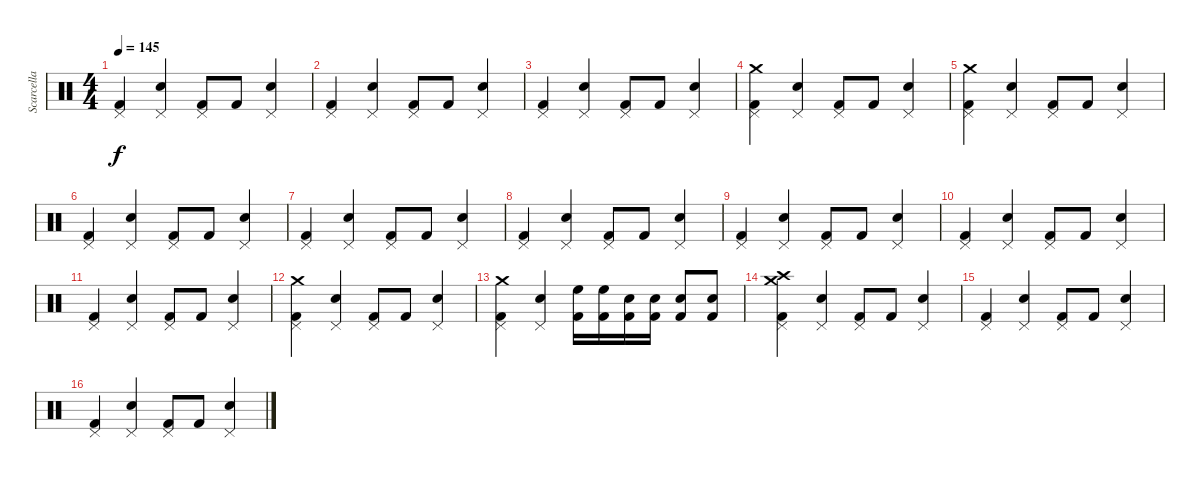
\track ("Scarcella" "Scarcella") {instrument percussion}
\staff {score}
\articulation defaults
\ts (4 4)
\tempo 145
\clef neutral
\ks c
("Pedal Hi-Hat (hit)" "Kick (hit) 2").4{dy f} ("Pedal Hi-Hat (hit)" "Snare (hit) 2").4 ("Pedal Hi-Hat (hit)" "Kick (hit) 2").8 "Kick (hit) 2".8 ("Pedal Hi-Hat (hit)" "Snare (hit) 2").4 |
("Pedal Hi-Hat (hit)" "Kick (hit) 2").4 ("Pedal Hi-Hat (hit)" "Snare (hit) 2").4 ("Pedal Hi-Hat (hit)" "Kick (hit) 2").8 "Kick (hit) 2".8 ("Pedal Hi-Hat (hit)" "Snare (hit) 2").4 |
("Pedal Hi-Hat (hit)" "Kick (hit) 2").4 ("Pedal Hi-Hat (hit)" "Snare (hit) 2").4 ("Pedal Hi-Hat (hit)" "Kick (hit) 2").8 "Kick (hit) 2".8 ("Pedal Hi-Hat (hit)" "Snare (hit) 2").4 |
("Pedal Hi-Hat (hit)" "Crash medium (hit)" "Kick (hit) 2").4 ("Pedal Hi-Hat (hit)" "Snare (hit) 2").4 ("Pedal Hi-Hat (hit)" "Kick (hit) 2").8 "Kick (hit) 2".8 ("Pedal Hi-Hat (hit)" "Snare (hit) 2").4 |
("Pedal Hi-Hat (hit)" "Crash medium (hit)" "Kick (hit) 2").4 ("Pedal Hi-Hat (hit)" "Snare (hit) 2").4 ("Pedal Hi-Hat (hit)" "Kick (hit) 2").8 "Kick (hit) 2".8 ("Pedal Hi-Hat (hit)" "Snare (hit) 2").4 |
("Pedal Hi-Hat (hit)" "Kick (hit) 2").4 ("Pedal Hi-Hat (hit)" "Snare (hit) 2").4 ("Pedal Hi-Hat (hit)" "Kick (hit) 2").8 "Kick (hit) 2".8 ("Pedal Hi-Hat (hit)" "Snare (hit) 2").4 |
("Pedal Hi-Hat (hit)" "Kick (hit) 2").4 ("Pedal Hi-Hat (hit)" "Snare (hit) 2").4 ("Pedal Hi-Hat (hit)" "Kick (hit) 2").8 "Kick (hit) 2".8 ("Pedal Hi-Hat (hit)" "Snare (hit) 2").4 |
("Pedal Hi-Hat (hit)" "Kick (hit) 2").4 ("Pedal Hi-Hat (hit)" "Snare (hit) 2").4 ("Pedal Hi-Hat (hit)" "Kick (hit) 2").8 "Kick (hit) 2".8 ("Pedal Hi-Hat (hit)" "Snare (hit) 2").4 |
("Pedal Hi-Hat (hit)" "Kick (hit) 2").4 ("Pedal Hi-Hat (hit)" "Snare (hit) 2").4 ("Pedal Hi-Hat (hit)" "Kick (hit) 2").8 "Kick (hit) 2".8 ("Pedal Hi-Hat (hit)" "Snare (hit) 2").4 |
("Pedal Hi-Hat (hit)" "Kick (hit) 2").4 ("Pedal Hi-Hat (hit)" "Snare (hit) 2").4 ("Pedal Hi-Hat (hit)" "Kick (hit) 2").8 "Kick (hit) 2".8 ("Pedal Hi-Hat (hit)" "Snare (hit) 2").4 |
("Pedal Hi-Hat (hit)" "Kick (hit) 2").4 ("Pedal Hi-Hat (hit)" "Snare (hit) 2").4 ("Pedal Hi-Hat (hit)" "Kick (hit) 2").8 "Kick (hit) 2".8 ("Pedal Hi-Hat (hit)" "Snare (hit) 2").4 |
("Pedal Hi-Hat (hit)" "Crash medium (hit)" "Kick (hit) 2").4 ("Pedal Hi-Hat (hit)" "Snare (hit) 2").4 ("Pedal Hi-Hat (hit)" "Kick (hit) 2").8 "Kick (hit) 2".8 ("Pedal Hi-Hat (hit)" "Snare (hit) 2").4 |
("Pedal Hi-Hat (hit)" "Crash medium (hit)" "Kick (hit) 2").4 ("Pedal Hi-Hat (hit)" "Snare (hit) 2").4 ("High Floor Tom (hit)" "Kick (hit) 2").16 ("High Floor Tom (hit)" "Kick (hit) 2").16 ("Snare (hit) 2" "Kick (hit) 2").16 ("Snare (hit) 2" "Kick (hit) 2").16 ("Snare (hit) 2" "Kick (hit) 2").8 ("Snare (hit) 2" "Kick (hit) 2").8 |
("Pedal Hi-Hat (hit)" "Crash medium (hit)" "Crash high (hit)" "Kick (hit) 2").4 ("Pedal Hi-Hat (hit)" "Snare (hit) 2").4 ("Pedal Hi-Hat (hit)" "Kick (hit) 2").8 "Kick (hit) 2".8 ("Pedal Hi-Hat (hit)" "Snare (hit) 2").4 |
("Pedal Hi-Hat (hit)" "Kick (hit) 2").4 ("Pedal Hi-Hat (hit)" "Snare (hit) 2").4 ("Pedal Hi-Hat (hit)" "Kick (hit) 2").8 "Kick (hit) 2".8 ("Pedal Hi-Hat (hit)" "Snare (hit) 2").4 |
("Pedal Hi-Hat (hit)" "Kick (hit) 2").4 ("Pedal Hi-Hat (hit)" "Snare (hit) 2").4 ("Pedal Hi-Hat (hit)" "Kick (hit) 2").8 "Kick (hit) 2".8 ("Pedal Hi-Hat (hit)" "Snare (hit) 2").4
